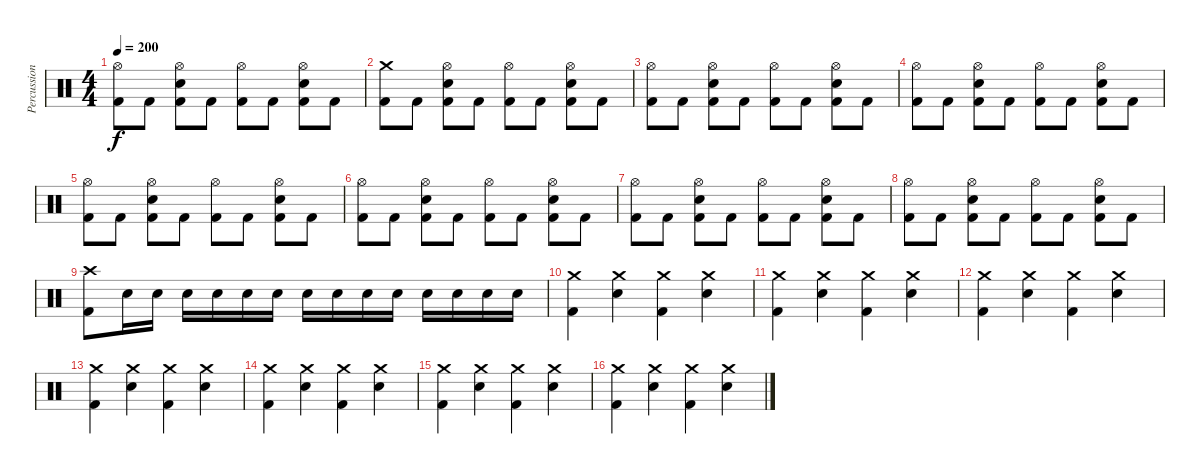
\track ("Percussion" "Percussion") {instrument percussion}
\staff {score}
\articulation defaults
\ts (4 4)
\tempo 200
\clef neutral
\ks c
("Hi-Hat (open)" "Kick (hit) 2").8{dy f} "Kick (hit) 2".8 ("Hi-Hat (open)" "Electric Snare (hit)" "Kick (hit) 2").8 "Kick (hit) 2".8 ("Hi-Hat (open)" "Kick (hit) 2").8 "Kick (hit) 2".8 ("Hi-Hat (open)" "Electric Snare (hit)" "Kick (hit) 2").8 "Kick (hit) 2".8 |
("Crash medium (hit)" "Kick (hit) 2").8 "Kick (hit) 2".8 ("Hi-Hat (open)" "Electric Snare (hit)" "Kick (hit) 2").8 "Kick (hit) 2".8 ("Hi-Hat (open)" "Kick (hit) 2").8 "Kick (hit) 2".8 ("Hi-Hat (open)" "Electric Snare (hit)" "Kick (hit) 2").8 "Kick (hit) 2".8 |
("Hi-Hat (open)" "Kick (hit) 2").8 "Kick (hit) 2".8 ("Hi-Hat (open)" "Electric Snare (hit)" "Kick (hit) 2").8 "Kick (hit) 2".8 ("Hi-Hat (open)" "Kick (hit) 2").8 "Kick (hit) 2".8 ("Hi-Hat (open)" "Electric Snare (hit)" "Kick (hit) 2").8 "Kick (hit) 2".8 |
("Hi-Hat (open)" "Kick (hit) 2").8 "Kick (hit) 2".8 ("Hi-Hat (open)" "Electric Snare (hit)" "Kick (hit) 2").8 "Kick (hit) 2".8 ("Hi-Hat (open)" "Kick (hit) 2").8 "Kick (hit) 2".8 ("Hi-Hat (open)" "Electric Snare (hit)" "Kick (hit) 2").8 "Kick (hit) 2".8 |
("Hi-Hat (open)" "Kick (hit) 2").8 "Kick (hit) 2".8 ("Hi-Hat (open)" "Electric Snare (hit)" "Kick (hit) 2").8 "Kick (hit) 2".8 ("Hi-Hat (open)" "Kick (hit) 2").8 "Kick (hit) 2".8 ("Hi-Hat (open)" "Electric Snare (hit)" "Kick (hit) 2").8 "Kick (hit) 2".8 |
("Hi-Hat (open)" "Kick (hit) 2").8 "Kick (hit) 2".8 ("Hi-Hat (open)" "Electric Snare (hit)" "Kick (hit) 2").8 "Kick (hit) 2".8 ("Hi-Hat (open)" "Kick (hit) 2").8 "Kick (hit) 2".8 ("Hi-Hat (open)" "Electric Snare (hit)" "Kick (hit) 2").8 "Kick (hit) 2".8 |
("Hi-Hat (open)" "Kick (hit) 2").8 "Kick (hit) 2".8 ("Hi-Hat (open)" "Electric Snare (hit)" "Kick (hit) 2").8 "Kick (hit) 2".8 ("Hi-Hat (open)" "Kick (hit) 2").8 "Kick (hit) 2".8 ("Hi-Hat (open)" "Electric Snare (hit)" "Kick (hit) 2").8 "Kick (hit) 2".8 |
("Hi-Hat (open)" "Kick (hit) 2").8 "Kick (hit) 2".8 ("Hi-Hat (open)" "Electric Snare (hit)" "Kick (hit) 2").8 "Kick (hit) 2".8 ("Hi-Hat (open)" "Kick (hit) 2").8 "Kick (hit) 2".8 ("Hi-Hat (open)" "Electric Snare (hit)" "Kick (hit) 2").8 "Kick (hit) 2".8 |
("Crash high (hit)" "Kick (hit) 2").8 "Electric Snare (hit)".16 "Electric Snare (hit)".16 "Electric Snare (hit)".16 "Electric Snare (hit)".16 "Electric Snare (hit)".16 "Electric Snare (hit)".16 "Electric Snare (hit)".16 "Electric Snare (hit)".16 "Electric Snare (hit)".16 "Electric Snare (hit)".16 "Electric Snare (hit)".16 "Electric Snare (hit)".16 "Electric Snare (hit)".16 "Electric Snare (hit)".16 |
("Crash medium (hit)" "Kick (hit) 2").4 ("Crash medium (hit)" "Electric Snare (hit)").4 ("Crash medium (hit)" "Kick (hit) 2").4 ("Crash medium (hit)" "Electric Snare (hit)").4 |
("Crash medium (hit)" "Kick (hit) 2").4 ("Crash medium (hit)" "Electric Snare (hit)").4 ("Crash medium (hit)" "Kick (hit) 2").4 ("Crash medium (hit)" "Electric Snare (hit)").4 |
("Crash medium (hit)" "Kick (hit) 2").4 ("Crash medium (hit)" "Electric Snare (hit)").4 ("Crash medium (hit)" "Kick (hit) 2").4 ("Crash medium (hit)" "Electric Snare (hit)").4 |
("Crash medium (hit)" "Kick (hit) 2").4 ("Crash medium (hit)" "Electric Snare (hit)").4 ("Crash medium (hit)" "Kick (hit) 2").4 ("Crash medium (hit)" "Electric Snare (hit)").4 |
("Crash medium (hit)" "Kick (hit) 2").4 ("Crash medium (hit)" "Electric Snare (hit)").4 ("Crash medium (hit)" "Kick (hit) 2").4 ("Crash medium (hit)" "Electric Snare (hit)").4 |
("Crash medium (hit)" "Kick (hit) 2").4 ("Crash medium (hit)" "Electric Snare (hit)").4 ("Crash medium (hit)" "Kick (hit) 2").4 ("Crash medium (hit)" "Electric Snare (hit)").4 |
("Crash medium (hit)" "Kick (hit) 2").4 ("Crash medium (hit)" "Electric Snare (hit)").4 ("Crash medium (hit)" "Kick (hit) 2").4 ("Crash medium (hit)" "Electric Snare (hit)").4
